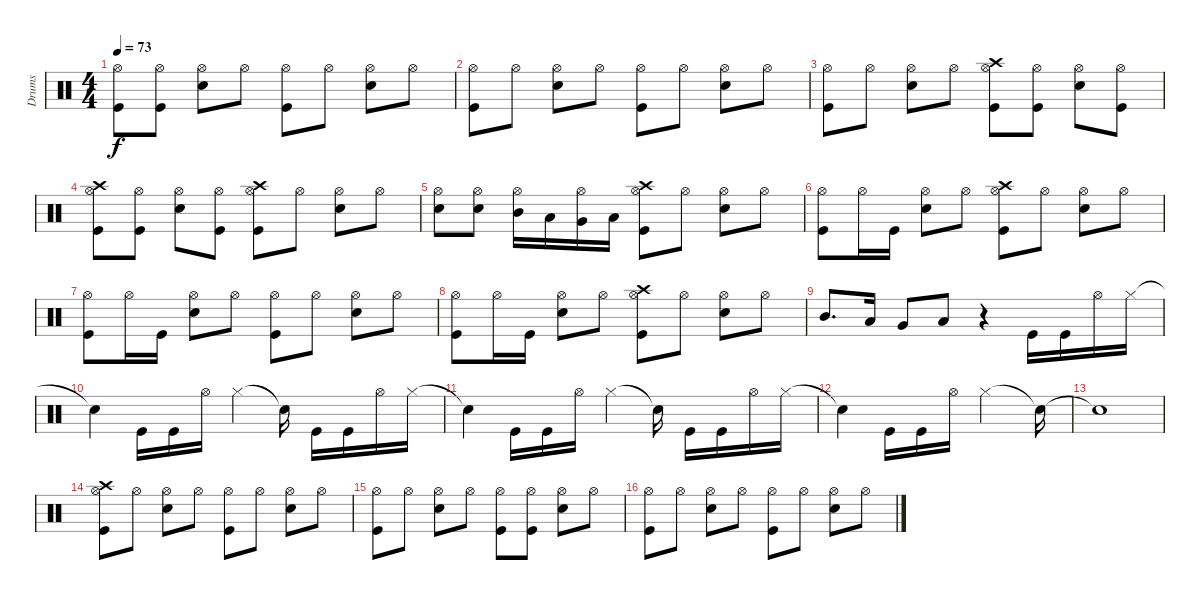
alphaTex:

\track ("Drums" "Drums") {instrument percussion}
\staff {score}
\articulation defaults
\ts (4 4)
\tempo 73
\clef neutral
\ks c
("Kick (hit)" "Hi-Hat (open)").8{dy f} ("Kick (hit)" "Hi-Hat (open)").8 ("Snare (hit) 2" "Hi-Hat (open)").8 "Hi-Hat (open)".8 ("Kick (hit)" "Hi-Hat (open)").8 "Hi-Hat (open)".8 ("Snare (hit) 2" "Hi-Hat (open)").8 "Hi-Hat (open)".8 |
("Kick (hit)" "Hi-Hat (open)").8 "Hi-Hat (open)".8 ("Snare (hit) 2" "Hi-Hat (open)").8 "Hi-Hat (open)".8 ("Kick (hit)" "Hi-Hat (open)").8 "Hi-Hat (open)".8 ("Snare (hit) 2" "Hi-Hat (open)").8 "Hi-Hat (open)".8 |
("Kick (hit)" "Hi-Hat (open)").8 "Hi-Hat (open)".8 ("Snare (hit) 2" "Hi-Hat (open)").8 "Hi-Hat (open)".8 ("Kick (hit)" "Hi-Hat (open)" "Crash high (hit)").8 ("Kick (hit)" "Hi-Hat (open)").8 ("Snare (hit) 2" "Hi-Hat (open)").8 ("Kick (hit)" "Hi-Hat (open)").8 |
("Kick (hit)" "Hi-Hat (open)" "Crash high (hit)").8 ("Kick (hit)" "Hi-Hat (open)").8 ("Snare (hit) 2" "Hi-Hat (open)").8 ("Kick (hit)" "Hi-Hat (open)").8 ("Kick (hit)" "Hi-Hat (open)" "Crash high (hit)").8 "Hi-Hat (open)".8 ("Snare (hit) 2" "Hi-Hat (open)").8 "Hi-Hat (open)".8 |
("Snare (hit) 2" "Hi-Hat (open)").8 ("Snare (hit) 2" "Hi-Hat (open)").8 ("Mid Tom (hit)" "Hi-Hat (open)").16 "Low Tom (hit)".16 ("Very Low Tom (hit)" "Hi-Hat (open)").16 "Low Floor Tom (hit)".16 ("Kick (hit)" "Hi-Hat (open)" "Crash high (hit)").8 "Hi-Hat (open)".8 ("Snare (hit) 2" "Hi-Hat (open)").8 "Hi-Hat (open)".8 |
("Kick (hit)" "Hi-Hat (open)").8 "Hi-Hat (open)".16 "Kick (hit)".16 ("Snare (hit) 2" "Hi-Hat (open)").8 "Hi-Hat (open)".8 ("Kick (hit)" "Hi-Hat (open)" "Crash high (hit)").8 "Hi-Hat (open)".8 ("Snare (hit) 2" "Hi-Hat (open)").8 "Hi-Hat (open)".8 |
("Kick (hit)" "Hi-Hat (open)").8 "Hi-Hat (open)".16 "Kick (hit)".16 ("Snare (hit) 2" "Hi-Hat (open)").8 "Hi-Hat (open)".8 ("Kick (hit)" "Hi-Hat (open)").8 "Hi-Hat (open)".8 ("Snare (hit) 2" "Hi-Hat (open)").8 "Hi-Hat (open)".8 |
("Kick (hit)" "Hi-Hat (open)").8 "Hi-Hat (open)".16 "Kick (hit)".16 ("Snare (hit) 2" "Hi-Hat (open)").8 "Hi-Hat (open)".8 ("Kick (hit)" "Hi-Hat (open)" "Crash high (hit)").8 "Hi-Hat (open)".8 ("Snare (hit) 2" "Hi-Hat (open)").8 "Hi-Hat (open)".8 |
"Mid Tom (hit)".8{d} "Low Tom (hit)".16 "Very Low Tom (hit)".8 "Low Floor Tom (hit)".8 r.4 "Kick (hit)".16{volume 3} "Kick (hit)".16 "Hi-Hat (open)".16 "Hi-Hat (closed)".16 |
"Snare (hit)"{t}.4 "Kick (hit)".16 "Kick (hit)".16 "Hi-Hat (open)".16 "Hi-Hat (closed)".4 "Snare (hit)"{t}.16 "Kick (hit)".16 "Kick (hit)".16 "Hi-Hat (open)".16 "Hi-Hat (closed)".16 |
"Snare (hit)"{t}.4 "Kick (hit)".16 "Kick (hit)".16 "Hi-Hat (open)".16 "Hi-Hat (closed)".4 "Snare (hit)"{t}.16 "Kick (hit)".16 "Kick (hit)".16 "Hi-Hat (open)".16 "Hi-Hat (closed)".16 |
"Snare (hit)"{t}.4 "Kick (hit)".16 "Kick (hit)".16 "Hi-Hat (open)".16 "Hi-Hat (closed)".2 "Snare (hit)"{t}.16 |
"Snare (hit)"{t}.1 |
("Kick (hit)" "Hi-Hat (open)" "Crash high (hit)").8{volume 10} "Hi-Hat (open)".8 ("Snare (hit) 2" "Hi-Hat (open)").8 "Hi-Hat (open)".8 ("Kick (hit)" "Hi-Hat (open)").8 "Hi-Hat (open)".8 ("Snare (hit) 2" "Hi-Hat (open)").8 "Hi-Hat (open)".8 |
("Kick (hit)" "Hi-Hat (open)").8 "Hi-Hat (open)".8 ("Snare (hit) 2" "Hi-Hat (open)").8 "Hi-Hat (open)".8 ("Kick (hit)" "Hi-Hat (open)").8 ("Kick (hit)" "Hi-Hat (open)").8 ("Snare (hit) 2" "Hi-Hat (open)").8 "Hi-Hat (open)".8 |
("Kick (hit)" "Hi-Hat (open)").8 "Hi-Hat (open)".8 ("Snare (hit) 2" "Hi-Hat (open)").8 "Hi-Hat (open)".8 ("Kick (hit)" "Hi-Hat (open)").8 "Hi-Hat (open)".8 ("Snare (hit) 2" "Hi-Hat (open)").8 "Hi-Hat (open)".8
